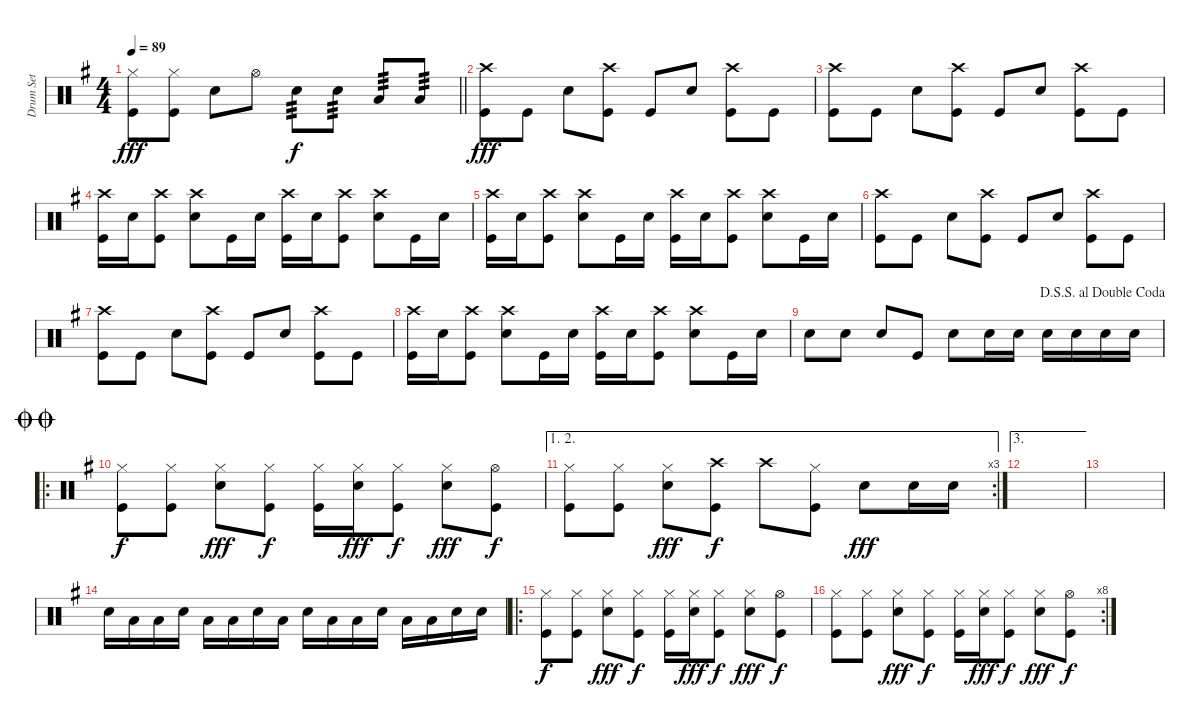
\track ("Drum Set" "Drum Set") {instrument percussion}
\staff {score}
\articulation defaults
\ts (4 4)
\tempo 89
\clef neutral
\barLineRight lightlight
\ks g
("Hi-Hat (closed)" "Kick (hit)").8{dy fff} ("Hi-Hat (closed)" "Kick (hit)").8 "Snare (hit) 2".8 "Hi-Hat (open)".8 "Snare (hit) 2".8{tp 3 dy f} "Snare (hit) 2".8{tp 3} "Low Tom (hit)".8{tp 3} "Low Tom (hit)".8{tp 3} |
("Crash high (hit)" "Kick (hit)").8{dy fff} "Kick (hit)".8 "Snare (hit) 2".8 ("Crash high (hit)" "Kick (hit)").8 "Kick (hit)".8 "Snare (hit) 2".8 ("Crash high (hit)" "Kick (hit)").8 "Kick (hit)".8 |
("Crash high (hit)" "Kick (hit)").8 "Kick (hit)".8 "Snare (hit) 2".8 ("Crash high (hit)" "Kick (hit)").8 "Kick (hit)".8 "Snare (hit) 2".8 ("Crash high (hit)" "Kick (hit)").8 "Kick (hit)".8 |
("Crash high (hit)" "Kick (hit)").16 "Snare (hit) 2".16 ("Crash high (hit)" "Kick (hit)").8 ("Crash high (hit)" "Snare (hit) 2").8 "Kick (hit)".16 "Snare (hit) 2".16 ("Crash high (hit)" "Kick (hit)").16 "Snare (hit) 2".16 ("Crash high (hit)" "Kick (hit)").8 ("Crash high (hit)" "Snare (hit) 2").8 "Kick (hit)".16 "Snare (hit) 2".16 |
("Crash high (hit)" "Kick (hit)").16 "Snare (hit) 2".16 ("Crash high (hit)" "Kick (hit)").8 ("Crash high (hit)" "Snare (hit) 2").8 "Kick (hit)".16 "Snare (hit) 2".16 ("Crash high (hit)" "Kick (hit)").16 "Snare (hit) 2".16 ("Crash high (hit)" "Kick (hit)").8 ("Crash high (hit)" "Snare (hit) 2").8 "Kick (hit)".16 "Snare (hit) 2".16 |
("Crash high (hit)" "Kick (hit)").8 "Kick (hit)".8 "Snare (hit) 2".8 ("Crash high (hit)" "Kick (hit)").8 "Kick (hit)".8 "Snare (hit) 2".8 ("Crash high (hit)" "Kick (hit)").8 "Kick (hit)".8 |
("Crash high (hit)" "Kick (hit)").8 "Kick (hit)".8 "Snare (hit) 2".8 ("Crash high (hit)" "Kick (hit)").8 "Kick (hit)".8 "Snare (hit) 2".8 ("Crash high (hit)" "Kick (hit)").8 "Kick (hit)".8 |
("Crash high (hit)" "Kick (hit)").16 "Snare (hit) 2".16 ("Crash high (hit)" "Kick (hit)").8 ("Crash high (hit)" "Snare (hit) 2").8 "Kick (hit)".16 "Snare (hit) 2".16 ("Crash high (hit)" "Kick (hit)").16 "Snare (hit) 2".16 ("Crash high (hit)" "Kick (hit)").8 ("Crash high (hit)" "Snare (hit) 2").8 "Kick (hit)".16 "Snare (hit) 2".16 |
\jump dalsegnosegnoaldoublecoda "Snare (hit) 2".8 "Snare (hit) 2".8 "Snare (hit) 2".8 "Kick (hit)".8 "Snare (hit) 2".8 "Snare (hit) 2".16 "Snare (hit) 2".16 "Snare (hit) 2".16 "Snare (hit) 2".16 "Snare (hit) 2".16 "Snare (hit) 2".16
|
\ro
\jump doublecoda
("Hi-Hat (closed)" "Kick (hit)").8{dy f} ("Hi-Hat (closed)" "Kick (hit)").8 ("Hi-Hat (closed)" "Snare (hit) 2").8{dy fff} ("Hi-Hat (closed)" "Kick (hit)").8{dy f} ("Hi-Hat (closed)" "Kick (hit)").16 ("Hi-Hat (closed)" "Snare (hit) 2").16{dy fff} ("Hi-Hat (closed)" "Kick (hit)").8{dy f} ("Hi-Hat (closed)" "Snare (hit) 2").8{dy fff} ("Hi-Hat (open)" "Kick (hit)").8{dy f} |
\ae (1 2)
\rc 3
("Hi-Hat (closed)" "Kick (hit)").8 ("Hi-Hat (closed)" "Kick (hit)").8 ("Hi-Hat (closed)" "Snare (hit) 2").8{dy fff} ("Crash high (hit)" "Kick (hit)").8{dy f} "Crash high (hit)".8 ("Hi-Hat (closed)" "Kick (hit)").8 "Snare (hit) 2".8{dy fff} "Snare (hit) 2".16 "Snare (hit) 2".16 |
\ae 3
|
|
"Snare (hit) 2".16 "Low Tom (hit)".16 "Low Tom (hit)".16 "Snare (hit) 2".16 "Low Tom (hit)".16 "Low Tom (hit)".16 "Snare (hit) 2".16 "Low Tom (hit)".16 "Snare (hit) 2".16 "Low Tom (hit)".16 "Low Tom (hit)".16 "Snare (hit) 2".16 "Low Tom (hit)".16 "Low Tom (hit)".16 "Snare (hit) 2".16 "Snare (hit) 2".16 |
\ro
("Hi-Hat (closed)" "Kick (hit)").8{dy f} ("Hi-Hat (closed)" "Kick (hit)").8 ("Hi-Hat (closed)" "Snare (hit) 2").8{dy fff} ("Hi-Hat (closed)" "Kick (hit)").8{dy f} ("Hi-Hat (closed)" "Kick (hit)").16 ("Hi-Hat (closed)" "Snare (hit) 2").16{dy fff} ("Hi-Hat (closed)" "Kick (hit)").8{dy f} ("Hi-Hat (closed)" "Snare (hit) 2").8{dy fff} ("Hi-Hat (open)" "Kick (hit)").8{dy f} |
\rc 8
("Hi-Hat (closed)" "Kick (hit)").8 ("Hi-Hat (closed)" "Kick (hit)").8 ("Hi-Hat (closed)" "Snare (hit) 2").8{dy fff} ("Hi-Hat (closed)" "Kick (hit)").8{dy f} ("Hi-Hat (closed)" "Kick (hit)").16 ("Hi-Hat (closed)" "Snare (hit) 2").16{dy fff} ("Hi-Hat (closed)" "Kick (hit)").8{dy f} ("Hi-Hat (closed)" "Snare (hit) 2").8{dy fff} ("Hi-Hat (open)" "Kick (hit)").8{dy f}
